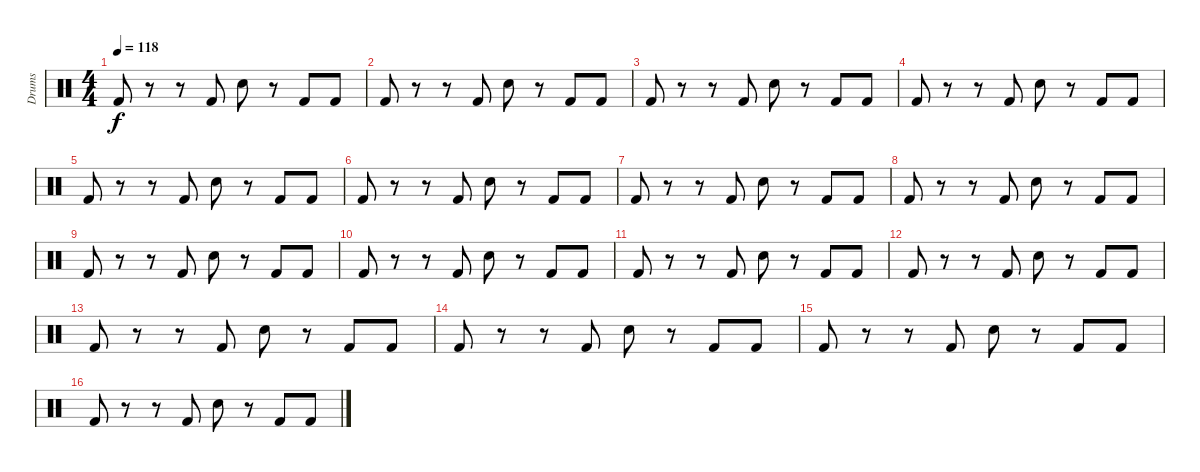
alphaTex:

\track ("Drums" "Drums") {instrument percussion}
\staff {score}
\articulation defaults
\ts (4 4)
\tempo 118
\clef neutral
\ks c "Kick (hit) 2".8{dy f}
r.8 r.8 "Kick (hit) 2".8 "Electric Snare (hit)".8 r.8 "Kick (hit) 2".8 "Kick (hit) 2".8 |
"Kick (hit) 2".8 r.8 r.8 "Kick (hit) 2".8 "Electric Snare (hit)".8 r.8 "Kick (hit) 2".8 "Kick (hit) 2".8 |
"Kick (hit) 2".8 r.8 r.8 "Kick (hit) 2".8 "Electric Snare (hit)".8 r.8 "Kick (hit) 2".8 "Kick (hit) 2".8 |
"Kick (hit) 2".8 r.8 r.8 "Kick (hit) 2".8 "Electric Snare (hit)".8 r.8 "Kick (hit) 2".8 "Kick (hit) 2".8 |
"Kick (hit) 2".8 r.8 r.8 "Kick (hit) 2".8 "Electric Snare (hit)".8 r.8 "Kick (hit) 2".8 "Kick (hit) 2".8 |
"Kick (hit) 2".8 r.8 r.8 "Kick (hit) 2".8 "Electric Snare (hit)".8 r.8 "Kick (hit) 2".8 "Kick (hit) 2".8 |
"Kick (hit) 2".8 r.8 r.8 "Kick (hit) 2".8 "Electric Snare (hit)".8 r.8 "Kick (hit) 2".8 "Kick (hit) 2".8 |
"Kick (hit) 2".8 r.8 r.8 "Kick (hit) 2".8 "Electric Snare (hit)".8 r.8 "Kick (hit) 2".8 "Kick (hit) 2".8 |
"Kick (hit) 2".8 r.8 r.8 "Kick (hit) 2".8 "Electric Snare (hit)".8 r.8 "Kick (hit) 2".8 "Kick (hit) 2".8 |
"Kick (hit) 2".8 r.8 r.8 "Kick (hit) 2".8 "Electric Snare (hit)".8 r.8 "Kick (hit) 2".8 "Kick (hit) 2".8 |
"Kick (hit) 2".8 r.8 r.8 "Kick (hit) 2".8 "Electric Snare (hit)".8 r.8 "Kick (hit) 2".8 "Kick (hit) 2".8 |
"Kick (hit) 2".8 r.8 r.8 "Kick (hit) 2".8 "Electric Snare (hit)".8 r.8 "Kick (hit) 2".8 "Kick (hit) 2".8 |
"Kick (hit) 2".8 r.8 r.8 "Kick (hit) 2".8 "Electric Snare (hit)".8 r.8 "Kick (hit) 2".8 "Kick (hit) 2".8 |
"Kick (hit) 2".8 r.8 r.8 "Kick (hit) 2".8 "Electric Snare (hit)".8 r.8 "Kick (hit) 2".8 "Kick (hit) 2".8 |
"Kick (hit) 2".8 r.8 r.8 "Kick (hit) 2".8 "Electric Snare (hit)".8 r.8 "Kick (hit) 2".8 "Kick (hit) 2".8 |
"Kick (hit) 2".8 r.8 r.8 "Kick (hit) 2".8 "Electric Snare (hit)".8 r.8 "Kick (hit) 2".8 "Kick (hit) 2".8
